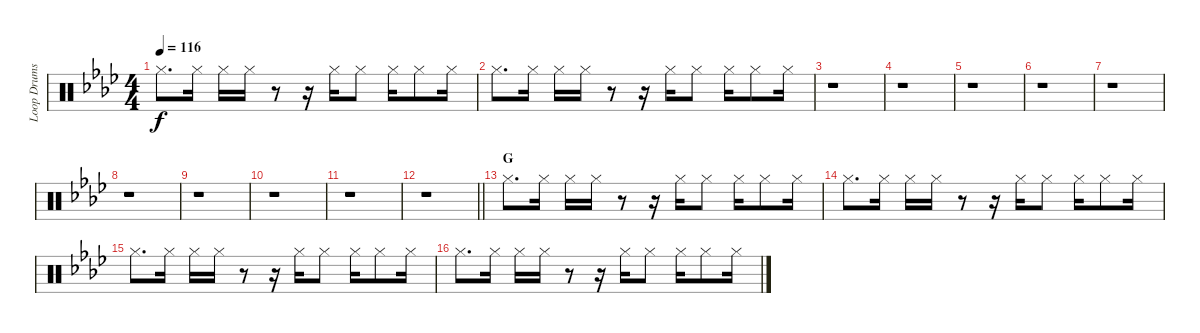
\track ("Loop Drums II" "Loop Drums") {instrument percussion}
\staff {score}
\articulation defaults
\ts (4 4)
\tempo 116
\clef neutral
\ks ab "Hi-Hat (closed)".8{d dy f} "Hi-Hat (closed)".16 "Hi-Hat (closed)".16 "Hi-Hat (closed)".16
r.8 r.16 "Hi-Hat (closed)".16 "Hi-Hat (closed)".8 "Hi-Hat (closed)".16 "Hi-Hat (closed)".8 "Hi-Hat (closed)".16 |
"Hi-Hat (closed)".8{d} "Hi-Hat (closed)".16 "Hi-Hat (closed)".16 "Hi-Hat (closed)".16 r.8 r.16 "Hi-Hat (closed)".16 "Hi-Hat (closed)".8 "Hi-Hat (closed)".16 "Hi-Hat (closed)".8 "Hi-Hat (closed)".16 |
r.1 |
r.1 |
r.1 |
r.1 |
r.1 |
r.1 |
r.1 |
r.1 |
r.1 |
\barLineRight lightlight
r.1 |
\section ("" "G")
"Hi-Hat (closed)".8{d} "Hi-Hat (closed)".16 "Hi-Hat (closed)".16 "Hi-Hat (closed)".16 r.8 r.16 "Hi-Hat (closed)".16 "Hi-Hat (closed)".8 "Hi-Hat (closed)".16 "Hi-Hat (closed)".8 "Hi-Hat (closed)".16 |
"Hi-Hat (closed)".8{d} "Hi-Hat (closed)".16 "Hi-Hat (closed)".16 "Hi-Hat (closed)".16 r.8 r.16 "Hi-Hat (closed)".16 "Hi-Hat (closed)".8 "Hi-Hat (closed)".16 "Hi-Hat (closed)".8 "Hi-Hat (closed)".16 |
"Hi-Hat (closed)".8{d} "Hi-Hat (closed)".16 "Hi-Hat (closed)".16 "Hi-Hat (closed)".16 r.8 r.16 "Hi-Hat (closed)".16 "Hi-Hat (closed)".8 "Hi-Hat (closed)".16 "Hi-Hat (closed)".8 "Hi-Hat (closed)".16 |
"Hi-Hat (closed)".8{d} "Hi-Hat (closed)".16 "Hi-Hat (closed)".16 "Hi-Hat (closed)".16 r.8 r.16 "Hi-Hat (closed)".16 "Hi-Hat (closed)".8 "Hi-Hat (closed)".16 "Hi-Hat (closed)".8 "Hi-Hat (closed)".16
